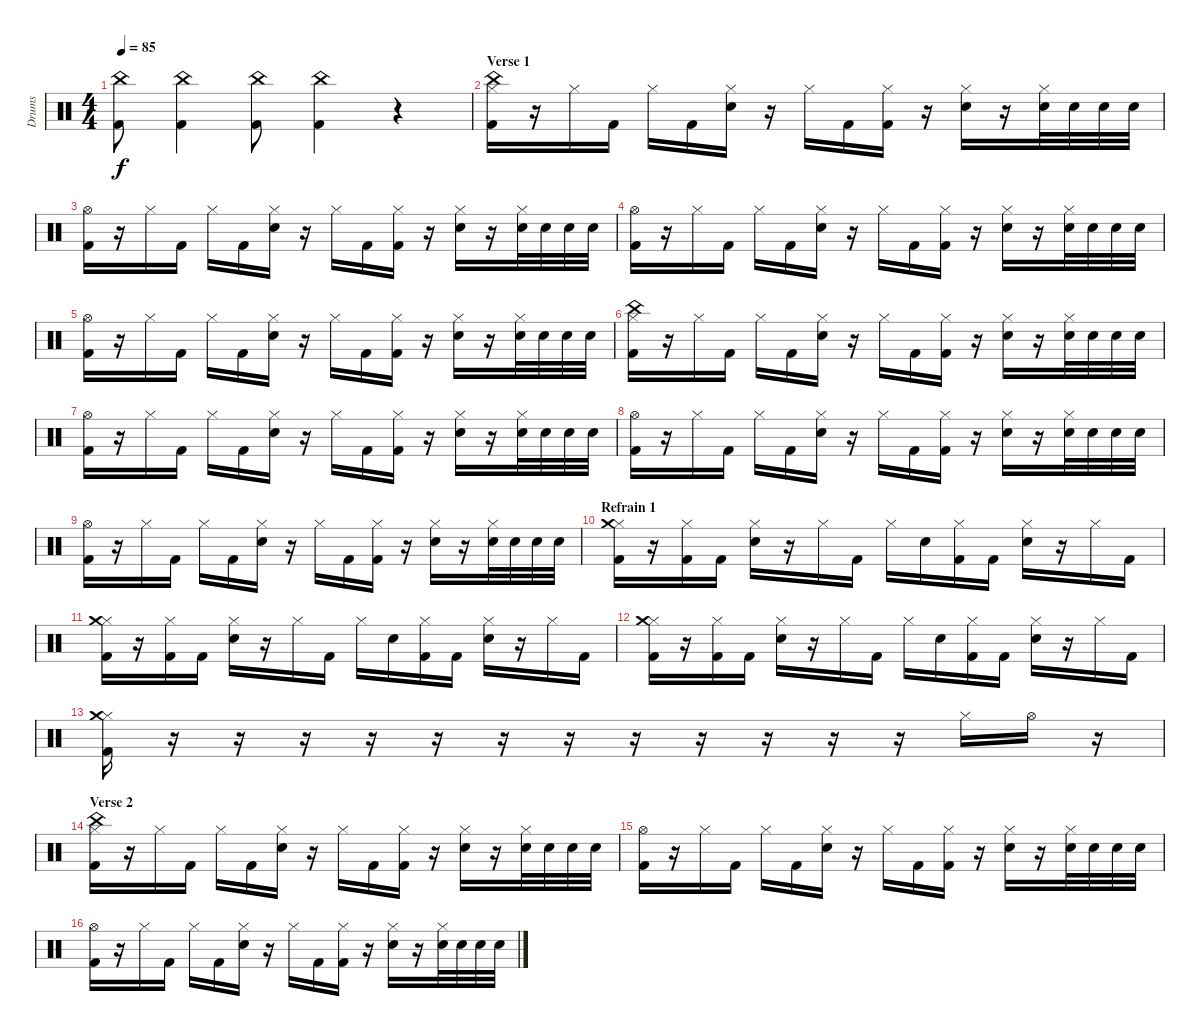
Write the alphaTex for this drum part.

\track ("Drums" "Drums") {instrument percussion}
\staff {score}
\articulation defaults
\ts (4 4)
\tempo 85
\clef neutral
\ks c
("Kick (hit) 2" "China (hit)").8{dy f} ("Kick (hit) 2" "China (hit)").4 ("Kick (hit) 2" "China (hit)").8 ("Kick (hit) 2" "China (hit)").4 r.4 |
\section ("" "Verse 1")
("Hi-Hat (closed)" "Kick (hit) 2" "China (hit)").16 r.16 "Hi-Hat (closed)".16 "Kick (hit) 2".16 "Hi-Hat (closed)".16 "Kick (hit) 2".16 ("Hi-Hat (closed)" "Snare (hit) 2").16 r.16 "Hi-Hat (closed)".16 "Kick (hit) 2".16 ("Hi-Hat (closed)" "Kick (hit) 2").16 r.16 ("Hi-Hat (closed)" "Snare (hit) 2").16 r.16 ("Hi-Hat (closed)" "Snare (hit) 2").32 "Snare (hit) 2".32 "Snare (hit) 2".32 "Snare (hit) 2".32 |
("Hi-Hat (open)" "Kick (hit) 2").16 r.16 "Hi-Hat (closed)".16 "Kick (hit) 2".16 "Hi-Hat (closed)".16 "Kick (hit) 2".16 ("Hi-Hat (closed)" "Snare (hit) 2").16 r.16 "Hi-Hat (closed)".16 "Kick (hit) 2".16 ("Hi-Hat (closed)" "Kick (hit) 2").16 r.16 ("Hi-Hat (closed)" "Snare (hit) 2").16 r.16 ("Hi-Hat (closed)" "Snare (hit) 2").32 "Snare (hit) 2".32 "Snare (hit) 2".32 "Snare (hit) 2".32 |
("Hi-Hat (open)" "Kick (hit) 2").16 r.16 "Hi-Hat (closed)".16 "Kick (hit) 2".16 "Hi-Hat (closed)".16 "Kick (hit) 2".16 ("Hi-Hat (closed)" "Snare (hit) 2").16 r.16 "Hi-Hat (closed)".16 "Kick (hit) 2".16 ("Hi-Hat (closed)" "Kick (hit) 2").16 r.16 ("Hi-Hat (closed)" "Snare (hit) 2").16 r.16 ("Hi-Hat (closed)" "Snare (hit) 2").32 "Snare (hit) 2".32 "Snare (hit) 2".32 "Snare (hit) 2".32 |
("Hi-Hat (open)" "Kick (hit) 2").16 r.16 "Hi-Hat (closed)".16 "Kick (hit) 2".16 "Hi-Hat (closed)".16 "Kick (hit) 2".16 ("Hi-Hat (closed)" "Snare (hit) 2").16 r.16 "Hi-Hat (closed)".16 "Kick (hit) 2".16 ("Hi-Hat (closed)" "Kick (hit) 2").16 r.16 ("Hi-Hat (closed)" "Snare (hit) 2").16 r.16 ("Hi-Hat (closed)" "Snare (hit) 2").32 "Snare (hit) 2".32 "Snare (hit) 2".32 "Snare (hit) 2".32 |
("Hi-Hat (closed)" "Kick (hit) 2" "China (hit)").16 r.16 "Hi-Hat (closed)".16 "Kick (hit) 2".16 "Hi-Hat (closed)".16 "Kick (hit) 2".16 ("Hi-Hat (closed)" "Snare (hit) 2").16 r.16 "Hi-Hat (closed)".16 "Kick (hit) 2".16 ("Hi-Hat (closed)" "Kick (hit) 2").16 r.16 ("Hi-Hat (closed)" "Snare (hit) 2").16 r.16 ("Hi-Hat (closed)" "Snare (hit) 2").32 "Snare (hit) 2".32 "Snare (hit) 2".32 "Snare (hit) 2".32 |
("Hi-Hat (open)" "Kick (hit) 2").16 r.16 "Hi-Hat (closed)".16 "Kick (hit) 2".16 "Hi-Hat (closed)".16 "Kick (hit) 2".16 ("Hi-Hat (closed)" "Snare (hit) 2").16 r.16 "Hi-Hat (closed)".16 "Kick (hit) 2".16 ("Hi-Hat (closed)" "Kick (hit) 2").16 r.16 ("Hi-Hat (closed)" "Snare (hit) 2").16 r.16 ("Hi-Hat (closed)" "Snare (hit) 2").32 "Snare (hit) 2".32 "Snare (hit) 2".32 "Snare (hit) 2".32 |
("Hi-Hat (open)" "Kick (hit) 2").16 r.16 "Hi-Hat (closed)".16 "Kick (hit) 2".16 "Hi-Hat (closed)".16 "Kick (hit) 2".16 ("Hi-Hat (closed)" "Snare (hit) 2").16 r.16 "Hi-Hat (closed)".16 "Kick (hit) 2".16 ("Hi-Hat (closed)" "Kick (hit) 2").16 r.16 ("Hi-Hat (closed)" "Snare (hit) 2").16 r.16 ("Hi-Hat (closed)" "Snare (hit) 2").32 "Snare (hit) 2".32 "Snare (hit) 2".32 "Snare (hit) 2".32 |
("Hi-Hat (open)" "Kick (hit) 2").16 r.16 "Hi-Hat (closed)".16 "Kick (hit) 2".16 "Hi-Hat (closed)".16 "Kick (hit) 2".16 ("Hi-Hat (closed)" "Snare (hit) 2").16 r.16 "Hi-Hat (closed)".16 "Kick (hit) 2".16 ("Hi-Hat (closed)" "Kick (hit) 2").16 r.16 ("Hi-Hat (closed)" "Snare (hit) 2").16 r.16 ("Hi-Hat (closed)" "Snare (hit) 2").32 "Snare (hit) 2".32 "Snare (hit) 2".32 "Snare (hit) 2".32 |
\section ("" "Refrain 1")
("Hi-Hat (closed)" "Kick (hit) 2" "Crash medium (hit)").16 r.16 ("Hi-Hat (closed)" "Kick (hit) 2").16 "Kick (hit) 2".16 ("Hi-Hat (closed)" "Snare (hit) 2").16 r.16 "Hi-Hat (closed)".16 "Kick (hit) 2".16 "Hi-Hat (closed)".16 "Snare (hit) 2".16 ("Hi-Hat (closed)" "Kick (hit) 2").16 "Kick (hit) 2".16 ("Hi-Hat (closed)" "Snare (hit) 2").16 r.16 "Hi-Hat (closed)".16 "Kick (hit) 2".16 |
("Hi-Hat (closed)" "Kick (hit) 2" "Crash medium (hit)").16 r.16 ("Hi-Hat (closed)" "Kick (hit) 2").16 "Kick (hit) 2".16 ("Hi-Hat (closed)" "Snare (hit) 2").16 r.16 "Hi-Hat (closed)".16 "Kick (hit) 2".16 "Hi-Hat (closed)".16 "Snare (hit) 2".16 ("Hi-Hat (closed)" "Kick (hit) 2").16 "Kick (hit) 2".16 ("Hi-Hat (closed)" "Snare (hit) 2").16 r.16 "Hi-Hat (closed)".16 "Kick (hit) 2".16 |
("Hi-Hat (closed)" "Kick (hit) 2" "Crash medium (hit)").16 r.16 ("Hi-Hat (closed)" "Kick (hit) 2").16 "Kick (hit) 2".16 ("Hi-Hat (closed)" "Snare (hit) 2").16 r.16 "Hi-Hat (closed)".16 "Kick (hit) 2".16 "Hi-Hat (closed)".16 "Snare (hit) 2".16 ("Hi-Hat (closed)" "Kick (hit) 2").16 "Kick (hit) 2".16 ("Hi-Hat (closed)" "Snare (hit) 2").16 r.16 "Hi-Hat (closed)".16 "Kick (hit) 2".16 |
("Hi-Hat (closed)" "Kick (hit) 2" "Crash medium (hit)").16 r.16 r.16 r.16 r.16 r.16 r.16 r.16 r.16 r.16 r.16 r.16 r.16 "Hi-Hat (closed)".16 "Hi-Hat (open)".16 r.16 |
\section ("" "Verse 2")
("Hi-Hat (closed)" "Kick (hit) 2" "China (hit)").16 r.16 "Hi-Hat (closed)".16 "Kick (hit) 2".16 "Hi-Hat (closed)".16 "Kick (hit) 2".16 ("Hi-Hat (closed)" "Snare (hit) 2").16 r.16 "Hi-Hat (closed)".16 "Kick (hit) 2".16 ("Hi-Hat (closed)" "Kick (hit) 2").16 r.16 ("Hi-Hat (closed)" "Snare (hit) 2").16 r.16 ("Hi-Hat (closed)" "Snare (hit) 2").32 "Snare (hit) 2".32 "Snare (hit) 2".32 "Snare (hit) 2".32 |
("Hi-Hat (open)" "Kick (hit) 2").16 r.16 "Hi-Hat (closed)".16 "Kick (hit) 2".16 "Hi-Hat (closed)".16 "Kick (hit) 2".16 ("Hi-Hat (closed)" "Snare (hit) 2").16 r.16 "Hi-Hat (closed)".16 "Kick (hit) 2".16 ("Hi-Hat (closed)" "Kick (hit) 2").16 r.16 ("Hi-Hat (closed)" "Snare (hit) 2").16 r.16 ("Hi-Hat (closed)" "Snare (hit) 2").32 "Snare (hit) 2".32 "Snare (hit) 2".32 "Snare (hit) 2".32 |
("Hi-Hat (open)" "Kick (hit) 2").16 r.16 "Hi-Hat (closed)".16 "Kick (hit) 2".16 "Hi-Hat (closed)".16 "Kick (hit) 2".16 ("Hi-Hat (closed)" "Snare (hit) 2").16 r.16 "Hi-Hat (closed)".16 "Kick (hit) 2".16 ("Hi-Hat (closed)" "Kick (hit) 2").16 r.16 ("Hi-Hat (closed)" "Snare (hit) 2").16 r.16 ("Hi-Hat (closed)" "Snare (hit) 2").32 "Snare (hit) 2".32 "Snare (hit) 2".32 "Snare (hit) 2".32
